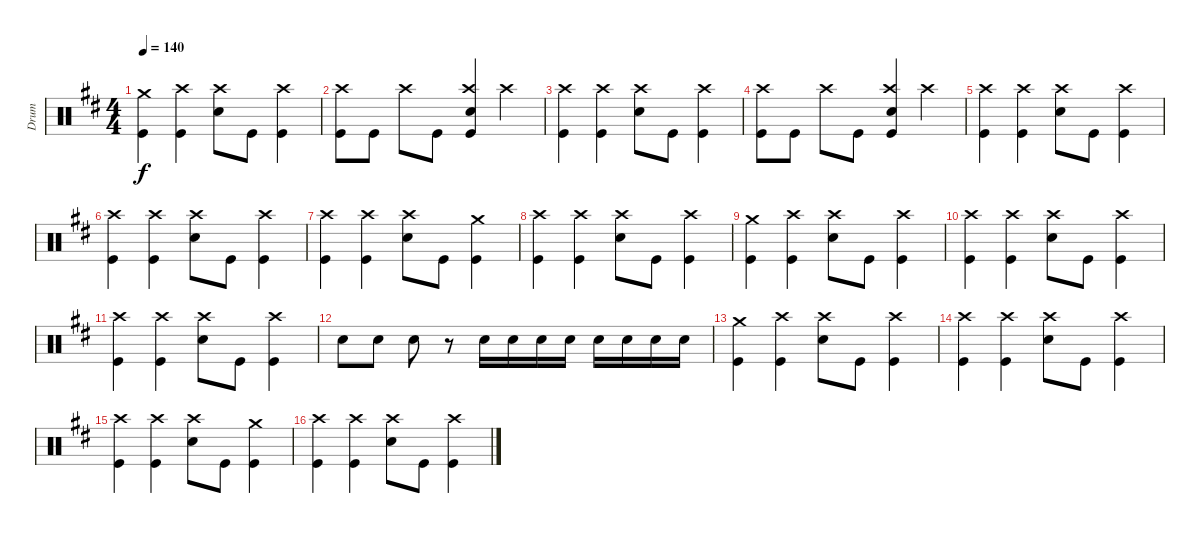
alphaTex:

\track ("Drum" "Drum") {instrument percussion}
\staff {score}
\articulation defaults
\ts (4 4)
\tempo 140
\clef neutral
\ks d
("Crash medium (hit)" "Kick (hit)").4{dy f} ("Crash high (hit)" "Kick (hit)").4 ("Crash high (hit)" "Snare (hit) 2").8 "Kick (hit)".8 ("Crash high (hit)" "Kick (hit)").4 |
("Crash high (hit)" "Kick (hit)").8 "Kick (hit)".8 "Crash high (hit)".8 "Kick (hit)".8 ("Crash high (hit)" "Snare (hit) 2" "Kick (hit)").4 "Crash high (hit)".4 |
("Crash high (hit)" "Kick (hit)").4 ("Crash high (hit)" "Kick (hit)").4 ("Crash high (hit)" "Snare (hit) 2").8 "Kick (hit)".8 ("Crash high (hit)" "Kick (hit)").4 |
("Crash high (hit)" "Kick (hit)").8 "Kick (hit)".8 "Crash high (hit)".8 "Kick (hit)".8 ("Crash high (hit)" "Snare (hit) 2" "Kick (hit)").4 "Crash high (hit)".4 |
("Crash high (hit)" "Kick (hit)").4 ("Crash high (hit)" "Kick (hit)").4 ("Crash high (hit)" "Snare (hit) 2").8 "Kick (hit)".8 ("Crash high (hit)" "Kick (hit)").4 |
("Crash high (hit)" "Kick (hit)").4 ("Crash high (hit)" "Kick (hit)").4 ("Crash high (hit)" "Snare (hit) 2").8 "Kick (hit)".8 ("Crash high (hit)" "Kick (hit)").4 |
("Crash high (hit)" "Kick (hit)").4 ("Crash high (hit)" "Kick (hit)").4 ("Crash high (hit)" "Snare (hit) 2").8 "Kick (hit)".8 ("Crash medium (hit)" "Kick (hit)").4 |
("Crash high (hit)" "Kick (hit)").4 ("Crash high (hit)" "Kick (hit)").4 ("Crash high (hit)" "Snare (hit) 2").8 "Kick (hit)".8 ("Crash high (hit)" "Kick (hit)").4 |
("Crash medium (hit)" "Kick (hit)").4 ("Crash high (hit)" "Kick (hit)").4 ("Crash high (hit)" "Snare (hit) 2").8 "Kick (hit)".8 ("Crash high (hit)" "Kick (hit)").4 |
("Crash high (hit)" "Kick (hit)").4 ("Crash high (hit)" "Kick (hit)").4 ("Crash high (hit)" "Snare (hit) 2").8 "Kick (hit)".8 ("Crash high (hit)" "Kick (hit)").4 |
("Crash high (hit)" "Kick (hit)").4 ("Crash high (hit)" "Kick (hit)").4 ("Crash high (hit)" "Snare (hit) 2").8 "Kick (hit)".8 ("Crash high (hit)" "Kick (hit)").4 |
"Snare (hit) 2".8 "Snare (hit) 2".8 "Snare (hit) 2".8 r.8 "Snare (hit) 2".16 "Snare (hit) 2".16 "Snare (hit) 2".16 "Snare (hit) 2".16 "Snare (hit) 2".16 "Snare (hit) 2".16 "Snare (hit) 2".16 "Snare (hit) 2".16 |
("Crash medium (hit)" "Kick (hit)").4 ("Crash high (hit)" "Kick (hit)").4 ("Crash high (hit)" "Snare (hit) 2").8 "Kick (hit)".8 ("Crash high (hit)" "Kick (hit)").4 |
("Crash high (hit)" "Kick (hit)").4 ("Crash high (hit)" "Kick (hit)").4 ("Crash high (hit)" "Snare (hit) 2").8 "Kick (hit)".8 ("Crash high (hit)" "Kick (hit)").4 |
("Crash high (hit)" "Kick (hit)").4 ("Crash high (hit)" "Kick (hit)").4 ("Crash high (hit)" "Snare (hit) 2").8 "Kick (hit)".8 ("Crash medium (hit)" "Kick (hit)").4 |
("Crash high (hit)" "Kick (hit)").4 ("Crash high (hit)" "Kick (hit)").4 ("Crash high (hit)" "Snare (hit) 2").8 "Kick (hit)".8 ("Crash high (hit)" "Kick (hit)").4
